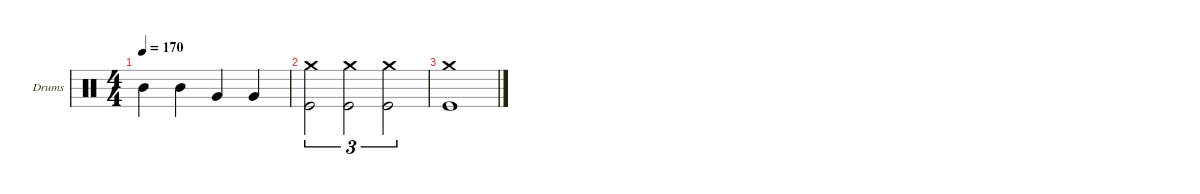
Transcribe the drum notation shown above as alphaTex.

\defaultSystemsLayout 4
\hideDynamics
\bracketExtendMode groupsimilarinstruments
\firstSystemTrackNameOrientation horizontal
\otherSystemsTrackNameOrientation horizontal
\track ("Drumkit" "Drums") {instrument percussion}
\staff {score}
\articulation defaults
\ts (4 4)
\tempo 170
\clef neutral
\ks c "Mid Tom (hit)".4{dy f} "Mid Tom (hit)".4 "Very Low Tom (hit)".4 "Very Low Tom (hit)".4
|
("Crash medium (hit)" "Kick (hit)").2{tu (3 2)} ("Crash medium (hit)" "Kick (hit)").2{tu (3 2)} ("Crash medium (hit)" "Kick (hit)").2{tu (3 2)} |
("Crash medium (hit)" "Kick (hit)").1
